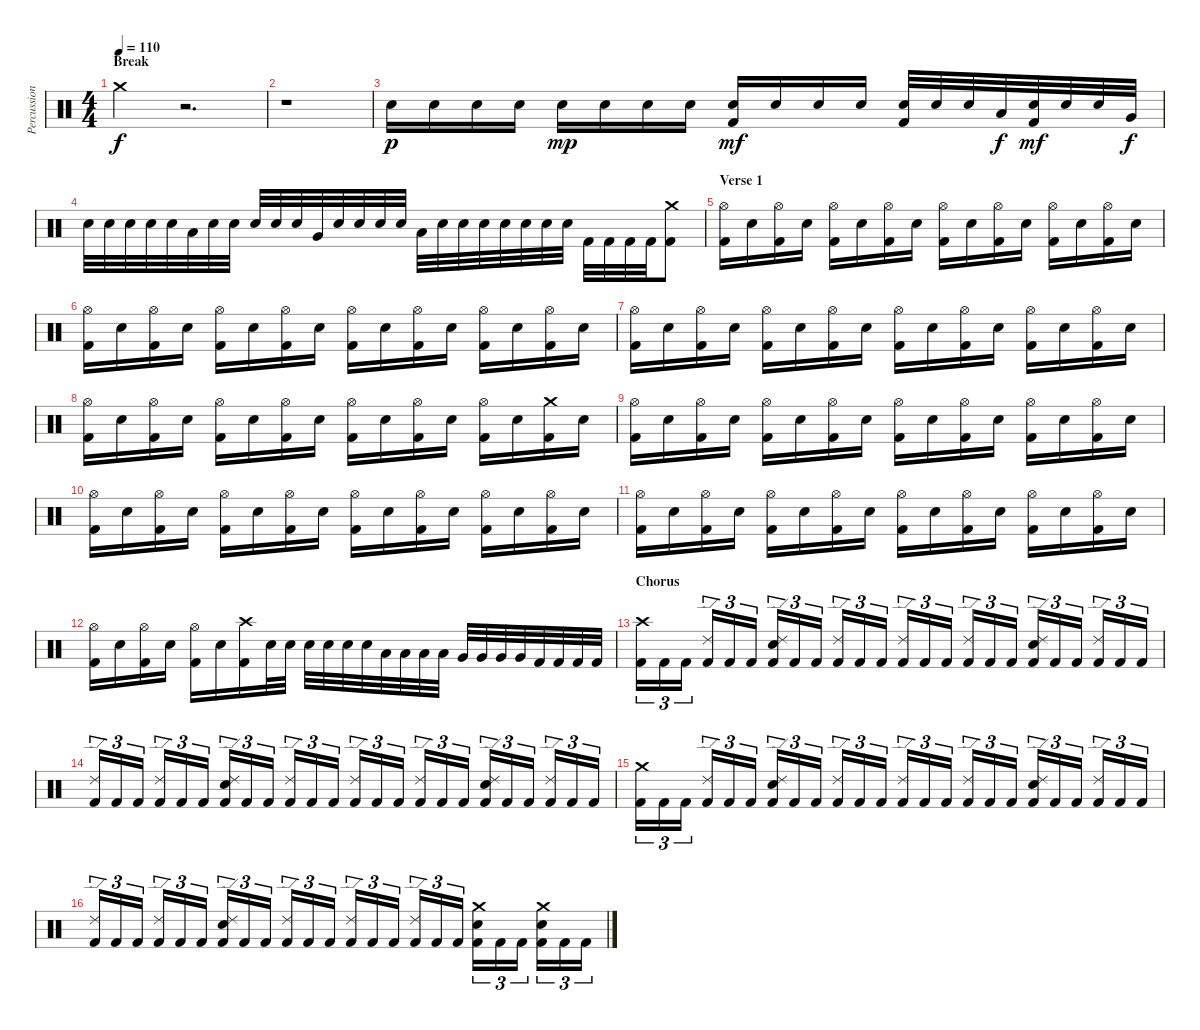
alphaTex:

\track ("Percussions" "Percussion") {instrument percussion}
\staff {score}
\articulation defaults
\ts (4 4)
\section ("" "Break")
\tempo 110
\clef neutral
\ks c "Crash medium (hit)".4{dy f}
r.2{d} |
r.1 |
"Electric Snare (hit)".16{dy p} "Electric Snare (hit)".16 "Electric Snare (hit)".16 "Electric Snare (hit)".16 "Electric Snare (hit)".16{dy mp} "Electric Snare (hit)".16 "Electric Snare (hit)".16 "Electric Snare (hit)".16 ("Electric Snare (hit)" "Kick (hit) 2").16{dy mf} "Electric Snare (hit)".16 "Electric Snare (hit)".16 "Electric Snare (hit)".16 ("Electric Snare (hit)" "Kick (hit) 2").32 "Electric Snare (hit)".32 "Electric Snare (hit)".32 "Low Tom (hit)".32{dy f} ("Electric Snare (hit)" "Kick (hit) 2").32{dy mf} "Electric Snare (hit)".32 "Electric Snare (hit)".32 "Very Low Tom (hit)".32{dy f} |
"Electric Snare (hit)".32 "Electric Snare (hit)".32 "Electric Snare (hit)".32 "Electric Snare (hit)".32 "Electric Snare (hit)".32 "Low Tom (hit)".32 "Electric Snare (hit)".32 "Electric Snare (hit)".32 "Electric Snare (hit)".32 "Electric Snare (hit)".32 "Electric Snare (hit)".32 "Very Low Tom (hit)".32 "Electric Snare (hit)".32 "Electric Snare (hit)".32 "Electric Snare (hit)".32 "Electric Snare (hit)".32 "Low Floor Tom (hit)".32 "Electric Snare (hit)".32 "Electric Snare (hit)".32 "Electric Snare (hit)".32 "Electric Snare (hit)".32 "Electric Snare (hit)".32 "Electric Snare (hit)".32 "Electric Snare (hit)".32 "Kick (hit) 2".32 "Kick (hit) 2".32 "Kick (hit) 2".32 "Kick (hit) 2".32 ("Crash medium (hit)" "Kick (hit) 2").8 |
\section ("" "Verse 1")
("Hi-Hat (open)" "Kick (hit) 2").16 "Electric Snare (hit)".16 ("Hi-Hat (open)" "Kick (hit) 2").16 "Electric Snare (hit)".16 ("Hi-Hat (open)" "Kick (hit) 2").16 "Electric Snare (hit)".16 ("Hi-Hat (open)" "Kick (hit) 2").16 "Electric Snare (hit)".16 ("Hi-Hat (open)" "Kick (hit) 2").16 "Electric Snare (hit)".16 ("Hi-Hat (open)" "Kick (hit) 2").16 "Electric Snare (hit)".16 ("Hi-Hat (open)" "Kick (hit) 2").16 "Electric Snare (hit)".16 ("Hi-Hat (open)" "Kick (hit) 2").16 "Electric Snare (hit)".16 |
("Hi-Hat (open)" "Kick (hit) 2").16 "Electric Snare (hit)".16 ("Hi-Hat (open)" "Kick (hit) 2").16 "Electric Snare (hit)".16 ("Hi-Hat (open)" "Kick (hit) 2").16 "Electric Snare (hit)".16 ("Hi-Hat (open)" "Kick (hit) 2").16 "Electric Snare (hit)".16 ("Hi-Hat (open)" "Kick (hit) 2").16 "Electric Snare (hit)".16 ("Hi-Hat (open)" "Kick (hit) 2").16 "Electric Snare (hit)".16 ("Hi-Hat (open)" "Kick (hit) 2").16 "Electric Snare (hit)".16 ("Hi-Hat (open)" "Kick (hit) 2").16 "Electric Snare (hit)".16 |
("Hi-Hat (open)" "Kick (hit) 2").16 "Electric Snare (hit)".16 ("Hi-Hat (open)" "Kick (hit) 2").16 "Electric Snare (hit)".16 ("Hi-Hat (open)" "Kick (hit) 2").16 "Electric Snare (hit)".16 ("Hi-Hat (open)" "Kick (hit) 2").16 "Electric Snare (hit)".16 ("Hi-Hat (open)" "Kick (hit) 2").16 "Electric Snare (hit)".16 ("Hi-Hat (open)" "Kick (hit) 2").16 "Electric Snare (hit)".16 ("Hi-Hat (open)" "Kick (hit) 2").16 "Electric Snare (hit)".16 ("Hi-Hat (open)" "Kick (hit) 2").16 "Electric Snare (hit)".16 |
("Hi-Hat (open)" "Kick (hit) 2").16 "Electric Snare (hit)".16 ("Hi-Hat (open)" "Kick (hit) 2").16 "Electric Snare (hit)".16 ("Hi-Hat (open)" "Kick (hit) 2").16 "Electric Snare (hit)".16 ("Hi-Hat (open)" "Kick (hit) 2").16 "Electric Snare (hit)".16 ("Hi-Hat (open)" "Kick (hit) 2").16 "Electric Snare (hit)".16 ("Hi-Hat (open)" "Kick (hit) 2").16 "Electric Snare (hit)".16 ("Hi-Hat (open)" "Kick (hit) 2").16 "Electric Snare (hit)".16 ("Crash medium (hit)" "Kick (hit) 2").16 "Electric Snare (hit)".16 |
("Hi-Hat (open)" "Kick (hit) 2").16 "Electric Snare (hit)".16 ("Hi-Hat (open)" "Kick (hit) 2").16 "Electric Snare (hit)".16 ("Hi-Hat (open)" "Kick (hit) 2").16 "Electric Snare (hit)".16 ("Hi-Hat (open)" "Kick (hit) 2").16 "Electric Snare (hit)".16 ("Hi-Hat (open)" "Kick (hit) 2").16 "Electric Snare (hit)".16 ("Hi-Hat (open)" "Kick (hit) 2").16 "Electric Snare (hit)".16 ("Hi-Hat (open)" "Kick (hit) 2").16 "Electric Snare (hit)".16 ("Hi-Hat (open)" "Kick (hit) 2").16 "Electric Snare (hit)".16 |
("Hi-Hat (open)" "Kick (hit) 2").16 "Electric Snare (hit)".16 ("Hi-Hat (open)" "Kick (hit) 2").16 "Electric Snare (hit)".16 ("Hi-Hat (open)" "Kick (hit) 2").16 "Electric Snare (hit)".16 ("Hi-Hat (open)" "Kick (hit) 2").16 "Electric Snare (hit)".16 ("Hi-Hat (open)" "Kick (hit) 2").16 "Electric Snare (hit)".16 ("Hi-Hat (open)" "Kick (hit) 2").16 "Electric Snare (hit)".16 ("Hi-Hat (open)" "Kick (hit) 2").16 "Electric Snare (hit)".16 ("Hi-Hat (open)" "Kick (hit) 2").16 "Electric Snare (hit)".16 |
("Hi-Hat (open)" "Kick (hit) 2").16 "Electric Snare (hit)".16 ("Hi-Hat (open)" "Kick (hit) 2").16 "Electric Snare (hit)".16 ("Hi-Hat (open)" "Kick (hit) 2").16 "Electric Snare (hit)".16 ("Hi-Hat (open)" "Kick (hit) 2").16 "Electric Snare (hit)".16 ("Hi-Hat (open)" "Kick (hit) 2").16 "Electric Snare (hit)".16 ("Hi-Hat (open)" "Kick (hit) 2").16 "Electric Snare (hit)".16 ("Hi-Hat (open)" "Kick (hit) 2").16 "Electric Snare (hit)".16 ("Hi-Hat (open)" "Kick (hit) 2").16 "Electric Snare (hit)".16 |
("Hi-Hat (open)" "Kick (hit) 2").16 "Electric Snare (hit)".16 ("Hi-Hat (open)" "Kick (hit) 2").16 "Electric Snare (hit)".16 ("Hi-Hat (open)" "Kick (hit) 2").16 "Electric Snare (hit)".16 ("Crash high (hit)" "Kick (hit) 2").16 "Electric Snare (hit)".32 "Electric Snare (hit)".32 "Electric Snare (hit)".32 "Electric Snare (hit)".32 "Electric Snare (hit)".32 "Electric Snare (hit)".32 "Low Tom (hit)".32 "Low Tom (hit)".32 "Low Tom (hit)".32 "Low Tom (hit)".32 "Very Low Tom (hit)".32 "Very Low Tom (hit)".32 "Very Low Tom (hit)".32 "Very Low Tom (hit)".32 "Kick (hit) 2".32 "Kick (hit) 2".32 "Kick (hit) 2".32 "Kick (hit) 2".32 |
\section ("" "Chorus")
("Crash high (hit)" "Kick (hit) 2").16{tu (3 2)} "Kick (hit) 2".16{tu (3 2)} "Kick (hit) 2".16{tu (3 2)} ("Ride (edge) 2" "Kick (hit) 2").16{tu (3 2)} "Kick (hit) 2".16{tu (3 2)} "Kick (hit) 2".16{tu (3 2)} ("Ride (edge) 2" "Electric Snare (hit)" "Kick (hit) 2").16{tu (3 2)} "Kick (hit) 2".16{tu (3 2)} "Kick (hit) 2".16{tu (3 2)} ("Ride (edge) 2" "Kick (hit) 2").16{tu (3 2)} "Kick (hit) 2".16{tu (3 2)} "Kick (hit) 2".16{tu (3 2)} ("Ride (edge) 2" "Kick (hit) 2").16{tu (3 2)} "Kick (hit) 2".16{tu (3 2)} "Kick (hit) 2".16{tu (3 2)} ("Ride (edge) 2" "Kick (hit) 2").16{tu (3 2)} "Kick (hit) 2".16{tu (3 2)} "Kick (hit) 2".16{tu (3 2)} ("Ride (edge) 2" "Electric Snare (hit)" "Kick (hit) 2").16{tu (3 2)} "Kick (hit) 2".16{tu (3 2)} "Kick (hit) 2".16{tu (3 2)} ("Ride (edge) 2" "Kick (hit) 2").16{tu (3 2)} "Kick (hit) 2".16{tu (3 2)} "Kick (hit) 2".16{tu (3 2)} |
("Ride (edge) 2" "Kick (hit) 2").16{tu (3 2)} "Kick (hit) 2".16{tu (3 2)} "Kick (hit) 2".16{tu (3 2)} ("Ride (edge) 2" "Kick (hit) 2").16{tu (3 2)} "Kick (hit) 2".16{tu (3 2)} "Kick (hit) 2".16{tu (3 2)} ("Ride (edge) 2" "Electric Snare (hit)" "Kick (hit) 2").16{tu (3 2)} "Kick (hit) 2".16{tu (3 2)} "Kick (hit) 2".16{tu (3 2)} ("Ride (edge) 2" "Kick (hit) 2").16{tu (3 2)} "Kick (hit) 2".16{tu (3 2)} "Kick (hit) 2".16{tu (3 2)} ("Ride (edge) 2" "Kick (hit) 2").16{tu (3 2)} "Kick (hit) 2".16{tu (3 2)} "Kick (hit) 2".16{tu (3 2)} ("Ride (edge) 2" "Kick (hit) 2").16{tu (3 2)} "Kick (hit) 2".16{tu (3 2)} "Kick (hit) 2".16{tu (3 2)} ("Ride (edge) 2" "Electric Snare (hit)" "Kick (hit) 2").16{tu (3 2)} "Kick (hit) 2".16{tu (3 2)} "Kick (hit) 2".16{tu (3 2)} ("Ride (edge) 2" "Kick (hit) 2").16{tu (3 2)} "Kick (hit) 2".16{tu (3 2)} "Kick (hit) 2".16{tu (3 2)} |
("Crash medium (hit)" "Kick (hit) 2").16{tu (3 2)} "Kick (hit) 2".16{tu (3 2)} "Kick (hit) 2".16{tu (3 2)} ("Ride (edge) 2" "Kick (hit) 2").16{tu (3 2)} "Kick (hit) 2".16{tu (3 2)} "Kick (hit) 2".16{tu (3 2)} ("Ride (edge) 2" "Electric Snare (hit)" "Kick (hit) 2").16{tu (3 2)} "Kick (hit) 2".16{tu (3 2)} "Kick (hit) 2".16{tu (3 2)} ("Ride (edge) 2" "Kick (hit) 2").16{tu (3 2)} "Kick (hit) 2".16{tu (3 2)} "Kick (hit) 2".16{tu (3 2)} ("Ride (edge) 2" "Kick (hit) 2").16{tu (3 2)} "Kick (hit) 2".16{tu (3 2)} "Kick (hit) 2".16{tu (3 2)} ("Ride (edge) 2" "Kick (hit) 2").16{tu (3 2)} "Kick (hit) 2".16{tu (3 2)} "Kick (hit) 2".16{tu (3 2)} ("Ride (edge) 2" "Electric Snare (hit)" "Kick (hit) 2").16{tu (3 2)} "Kick (hit) 2".16{tu (3 2)} "Kick (hit) 2".16{tu (3 2)} ("Ride (edge) 2" "Kick (hit) 2").16{tu (3 2)} "Kick (hit) 2".16{tu (3 2)} "Kick (hit) 2".16{tu (3 2)} |
("Ride (edge) 2" "Kick (hit) 2").16{tu (3 2)} "Kick (hit) 2".16{tu (3 2)} "Kick (hit) 2".16{tu (3 2)} ("Ride (edge) 2" "Kick (hit) 2").16{tu (3 2)} "Kick (hit) 2".16{tu (3 2)} "Kick (hit) 2".16{tu (3 2)} ("Ride (edge) 2" "Electric Snare (hit)" "Kick (hit) 2").16{tu (3 2)} "Kick (hit) 2".16{tu (3 2)} "Kick (hit) 2".16{tu (3 2)} ("Ride (edge) 2" "Kick (hit) 2").16{tu (3 2)} "Kick (hit) 2".16{tu (3 2)} "Kick (hit) 2".16{tu (3 2)} ("Ride (edge) 2" "Kick (hit) 2").16{tu (3 2)} "Kick (hit) 2".16{tu (3 2)} "Kick (hit) 2".16{tu (3 2)} ("Ride (edge) 2" "Kick (hit) 2").16{tu (3 2)} "Kick (hit) 2".16{tu (3 2)} "Kick (hit) 2".16{tu (3 2)} ("Crash medium (hit)" "Electric Snare (hit)" "Kick (hit) 2").16{tu (3 2)} "Kick (hit) 2".16{tu (3 2)} "Kick (hit) 2".16{tu (3 2)} ("Crash medium (hit)" "Electric Snare (hit)" "Kick (hit) 2").16{tu (3 2)} "Kick (hit) 2".16{tu (3 2)} "Kick (hit) 2".16{tu (3 2)}
